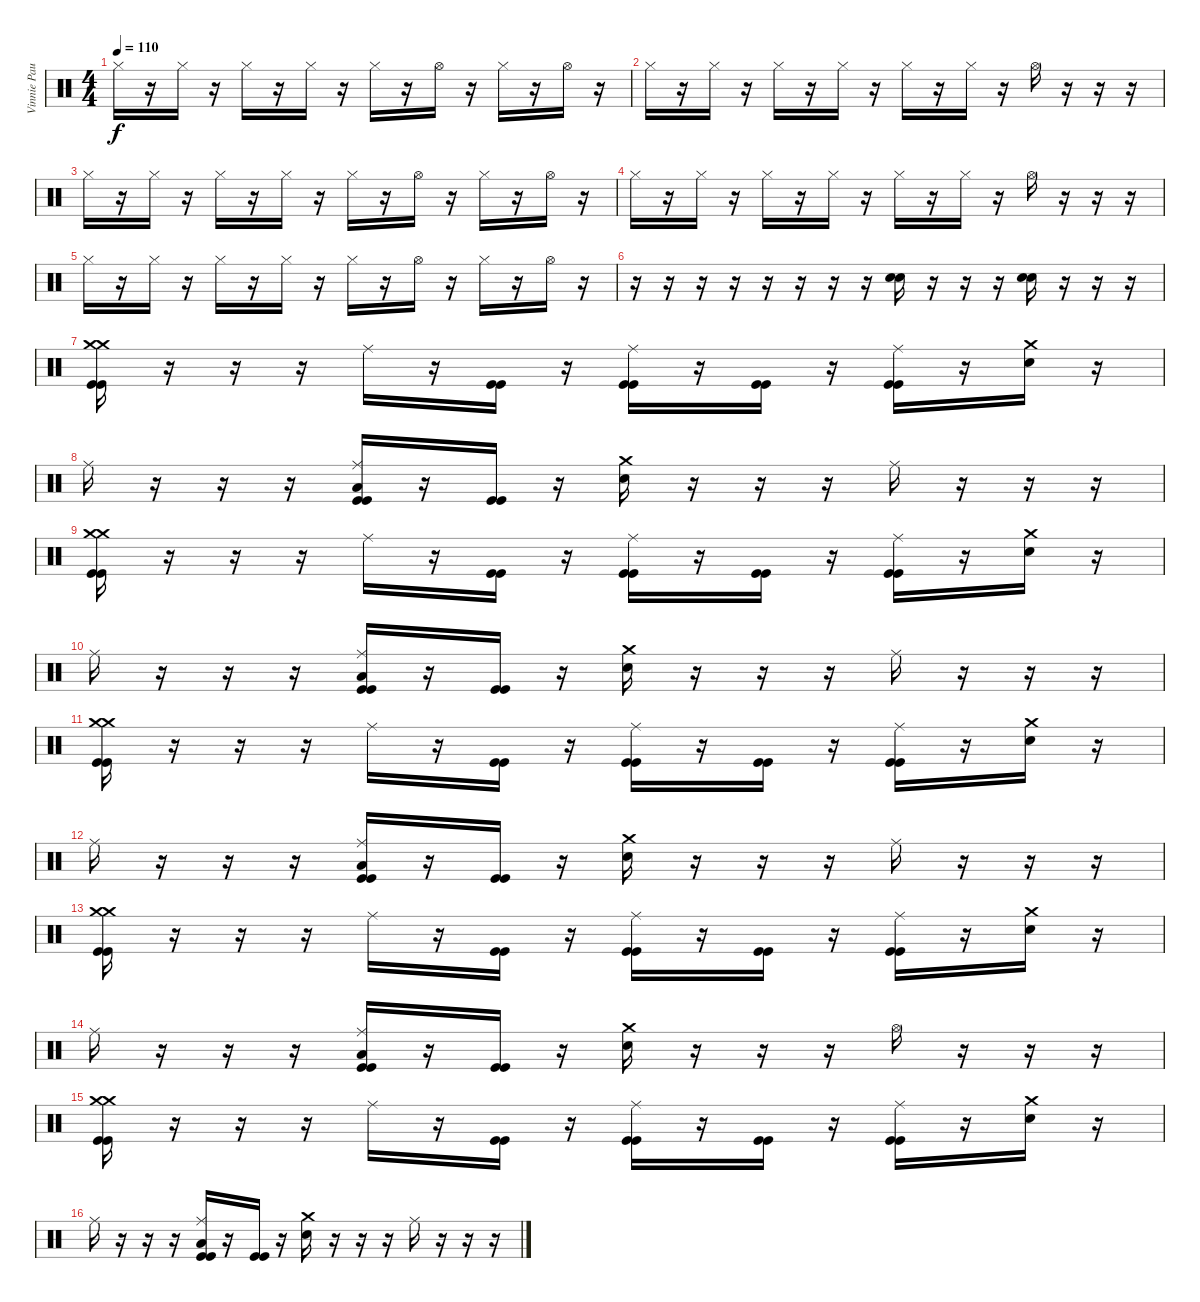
\track ("Vinnie Paul " "Vinnie Pau") {instrument percussion}
\staff {score}
\articulation defaults
\ts (4 4)
\tempo 110
\clef neutral
\ks c "Hi-Hat (closed)".16{dy f}
r.16 "Hi-Hat (closed)".16 r.16 "Hi-Hat (closed)".16 r.16 "Hi-Hat (closed)".16 r.16 "Hi-Hat (closed)".16 r.16 "Hi-Hat (open)".16 r.16 "Hi-Hat (closed)".16 r.16 "Hi-Hat (open)".16 r.16 |
"Hi-Hat (closed)".16 r.16 "Hi-Hat (closed)".16 r.16 "Hi-Hat (closed)".16 r.16 "Hi-Hat (closed)".16 r.16 "Hi-Hat (closed)".16 r.16 "Hi-Hat (closed)".16 r.16 "Hi-Hat (open)".16 r.16 r.16 r.16 |
"Hi-Hat (closed)".16 r.16 "Hi-Hat (closed)".16 r.16 "Hi-Hat (closed)".16 r.16 "Hi-Hat (closed)".16 r.16 "Hi-Hat (closed)".16 r.16 "Hi-Hat (open)".16 r.16 "Hi-Hat (closed)".16 r.16 "Hi-Hat (open)".16 r.16 |
"Hi-Hat (closed)".16 r.16 "Hi-Hat (closed)".16 r.16 "Hi-Hat (closed)".16 r.16 "Hi-Hat (closed)".16 r.16 "Hi-Hat (closed)".16 r.16 "Hi-Hat (closed)".16 r.16 "Hi-Hat (open)".16 r.16 r.16 r.16 |
"Hi-Hat (closed)".16 r.16 "Hi-Hat (closed)".16 r.16 "Hi-Hat (closed)".16 r.16 "Hi-Hat (closed)".16 r.16 "Hi-Hat (closed)".16 r.16 "Hi-Hat (open)".16 r.16 "Hi-Hat (closed)".16 r.16 "Hi-Hat (open)".16 r.16 |
r.16 r.16 r.16 r.16 r.16 r.16 r.16 r.16 ("Snare (hit) 2" "Snare (hit) 2").16 r.16 r.16 r.16 ("Snare (hit) 2" "Snare (hit) 2").16 r.16 r.16 r.16 |
("Crash medium (hit)" "Crash medium (hit)" "Kick (hit)" "Kick (hit)").16 r.16 r.16 r.16 "Ride (middle)".16 r.16 ("Kick (hit)" "Kick (hit)").16 r.16 ("Ride (middle)" "Kick (hit)" "Kick (hit)").16 r.16 ("Kick (hit)" "Kick (hit)").16 r.16 ("Ride (middle)" "Kick (hit)" "Kick (hit)").16 r.16 ("Crash medium (hit)" "Snare (hit) 2").16 r.16 |
"Ride (middle)".16 r.16 r.16 r.16 ("Ride (middle)" "Low Tom (hit)" "Kick (hit)" "Kick (hit)").16 r.16 ("Kick (hit)" "Kick (hit)").16 r.16 ("Crash medium (hit)" "Snare (hit) 2").16 r.16 r.16 r.16 "Ride (middle)".16 r.16 r.16 r.16 |
("Crash medium (hit)" "Crash medium (hit)" "Kick (hit)" "Kick (hit)").16 r.16 r.16 r.16 "Ride (middle)".16 r.16 ("Kick (hit)" "Kick (hit)").16 r.16 ("Ride (middle)" "Kick (hit)" "Kick (hit)").16 r.16 ("Kick (hit)" "Kick (hit)").16 r.16 ("Ride (middle)" "Kick (hit)" "Kick (hit)").16 r.16 ("Crash medium (hit)" "Snare (hit) 2").16 r.16 |
"Ride (middle)".16 r.16 r.16 r.16 ("Ride (middle)" "Low Tom (hit)" "Kick (hit)" "Kick (hit)").16 r.16 ("Kick (hit)" "Kick (hit)").16 r.16 ("Crash medium (hit)" "Snare (hit) 2").16 r.16 r.16 r.16 "Ride (middle)".16 r.16 r.16 r.16 |
("Crash medium (hit)" "Crash medium (hit)" "Kick (hit)" "Kick (hit)").16 r.16 r.16 r.16 "Ride (middle)".16 r.16 ("Kick (hit)" "Kick (hit)").16 r.16 ("Ride (middle)" "Kick (hit)" "Kick (hit)").16 r.16 ("Kick (hit)" "Kick (hit)").16 r.16 ("Ride (middle)" "Kick (hit)" "Kick (hit)").16 r.16 ("Crash medium (hit)" "Snare (hit) 2").16 r.16 |
"Ride (middle)".16 r.16 r.16 r.16 ("Ride (middle)" "Low Tom (hit)" "Kick (hit)" "Kick (hit)").16 r.16 ("Kick (hit)" "Kick (hit)").16 r.16 ("Crash medium (hit)" "Snare (hit) 2").16 r.16 r.16 r.16 "Ride (middle)".16 r.16 r.16 r.16 |
("Crash medium (hit)" "Crash medium (hit)" "Kick (hit)" "Kick (hit)").16 r.16 r.16 r.16 "Ride (middle)".16 r.16 ("Kick (hit)" "Kick (hit)").16 r.16 ("Ride (middle)" "Kick (hit)" "Kick (hit)").16 r.16 ("Kick (hit)" "Kick (hit)").16 r.16 ("Ride (middle)" "Kick (hit)" "Kick (hit)").16 r.16 ("Crash medium (hit)" "Snare (hit) 2").16 r.16 |
"Ride (middle)".16 r.16 r.16 r.16 ("Ride (middle)" "Low Tom (hit)" "Kick (hit)" "Kick (hit)").16 r.16 ("Kick (hit)" "Kick (hit)").16 r.16 ("Crash medium (hit)" "Snare (hit) 2").16 r.16 r.16 r.16 "Hi-Hat (open)".16 r.16 r.16 r.16 |
("Crash medium (hit)" "Crash medium (hit)" "Kick (hit)" "Kick (hit)").16 r.16 r.16 r.16 "Ride (middle)".16 r.16 ("Kick (hit)" "Kick (hit)").16 r.16 ("Ride (middle)" "Kick (hit)" "Kick (hit)").16 r.16 ("Kick (hit)" "Kick (hit)").16 r.16 ("Ride (middle)" "Kick (hit)" "Kick (hit)").16 r.16 ("Crash medium (hit)" "Snare (hit) 2").16 r.16 |
"Ride (middle)".16 r.16 r.16 r.16 ("Ride (middle)" "Low Tom (hit)" "Kick (hit)" "Kick (hit)").16 r.16 ("Kick (hit)" "Kick (hit)").16 r.16 ("Crash medium (hit)" "Snare (hit) 2").16 r.16 r.16 r.16 "Ride (middle)".16 r.16 r.16 r.16
